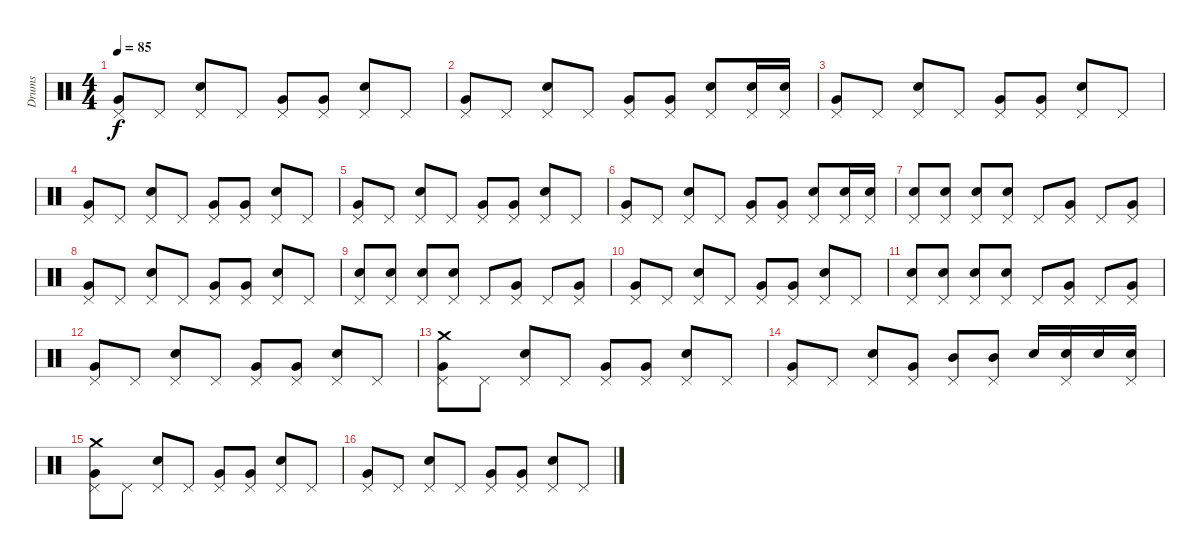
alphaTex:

\track ("Drums" "Drums") {instrument percussion}
\staff {score}
\articulation defaults
\ts (4 4)
\tempo 85
\clef neutral
\ks c
("Pedal Hi-Hat (hit)" "Very Low Tom (hit)").8{dy f} "Pedal Hi-Hat (hit)".8 ("Pedal Hi-Hat (hit)" "Snare (hit) 2").8 "Pedal Hi-Hat (hit)".8 ("Pedal Hi-Hat (hit)" "Very Low Tom (hit)").8 ("Pedal Hi-Hat (hit)" "Very Low Tom (hit)").8 ("Pedal Hi-Hat (hit)" "Snare (hit) 2").8 "Pedal Hi-Hat (hit)".8 |
("Pedal Hi-Hat (hit)" "Very Low Tom (hit)").8 "Pedal Hi-Hat (hit)".8 ("Pedal Hi-Hat (hit)" "Snare (hit) 2").8 "Pedal Hi-Hat (hit)".8 ("Pedal Hi-Hat (hit)" "Very Low Tom (hit)").8 ("Pedal Hi-Hat (hit)" "Very Low Tom (hit)").8 ("Pedal Hi-Hat (hit)" "Snare (hit) 2").8 ("Pedal Hi-Hat (hit)" "Electric Snare (hit)").16 ("Pedal Hi-Hat (hit)" "Electric Snare (hit)").16 |
("Pedal Hi-Hat (hit)" "Very Low Tom (hit)").8 "Pedal Hi-Hat (hit)".8 ("Pedal Hi-Hat (hit)" "Snare (hit) 2").8 "Pedal Hi-Hat (hit)".8 ("Pedal Hi-Hat (hit)" "Very Low Tom (hit)").8 ("Pedal Hi-Hat (hit)" "Very Low Tom (hit)").8 ("Pedal Hi-Hat (hit)" "Snare (hit) 2").8 "Pedal Hi-Hat (hit)".8 |
("Pedal Hi-Hat (hit)" "Very Low Tom (hit)").8 "Pedal Hi-Hat (hit)".8 ("Pedal Hi-Hat (hit)" "Snare (hit) 2").8 "Pedal Hi-Hat (hit)".8 ("Pedal Hi-Hat (hit)" "Very Low Tom (hit)").8 ("Pedal Hi-Hat (hit)" "Very Low Tom (hit)").8 ("Pedal Hi-Hat (hit)" "Snare (hit) 2").8 "Pedal Hi-Hat (hit)".8 |
("Pedal Hi-Hat (hit)" "Very Low Tom (hit)").8 "Pedal Hi-Hat (hit)".8 ("Pedal Hi-Hat (hit)" "Snare (hit) 2").8 "Pedal Hi-Hat (hit)".8 ("Pedal Hi-Hat (hit)" "Very Low Tom (hit)").8 ("Pedal Hi-Hat (hit)" "Very Low Tom (hit)").8 ("Pedal Hi-Hat (hit)" "Snare (hit) 2").8 "Pedal Hi-Hat (hit)".8 |
("Pedal Hi-Hat (hit)" "Very Low Tom (hit)").8 "Pedal Hi-Hat (hit)".8 ("Pedal Hi-Hat (hit)" "Snare (hit) 2").8 "Pedal Hi-Hat (hit)".8 ("Pedal Hi-Hat (hit)" "Very Low Tom (hit)").8 ("Pedal Hi-Hat (hit)" "Very Low Tom (hit)").8 ("Pedal Hi-Hat (hit)" "Snare (hit) 2").8 ("Pedal Hi-Hat (hit)" "Electric Snare (hit)").16 ("Pedal Hi-Hat (hit)" "Electric Snare (hit)").16 |
("Pedal Hi-Hat (hit)" "Snare (hit) 2").8 ("Pedal Hi-Hat (hit)" "Snare (hit) 2").8 ("Pedal Hi-Hat (hit)" "Snare (hit) 2").8 ("Pedal Hi-Hat (hit)" "Snare (hit) 2").8 "Pedal Hi-Hat (hit)".8 ("Pedal Hi-Hat (hit)" "Very Low Tom (hit)").8 "Pedal Hi-Hat (hit)".8 ("Pedal Hi-Hat (hit)" "Very Low Tom (hit)").8 |
("Pedal Hi-Hat (hit)" "Very Low Tom (hit)").8 "Pedal Hi-Hat (hit)".8 ("Pedal Hi-Hat (hit)" "Snare (hit) 2").8 "Pedal Hi-Hat (hit)".8 ("Pedal Hi-Hat (hit)" "Very Low Tom (hit)").8 ("Pedal Hi-Hat (hit)" "Very Low Tom (hit)").8 ("Pedal Hi-Hat (hit)" "Snare (hit) 2").8 "Pedal Hi-Hat (hit)".8 |
("Pedal Hi-Hat (hit)" "Snare (hit) 2").8 ("Pedal Hi-Hat (hit)" "Snare (hit) 2").8 ("Pedal Hi-Hat (hit)" "Snare (hit) 2").8 ("Pedal Hi-Hat (hit)" "Snare (hit) 2").8 "Pedal Hi-Hat (hit)".8 ("Pedal Hi-Hat (hit)" "Very Low Tom (hit)").8 "Pedal Hi-Hat (hit)".8 ("Pedal Hi-Hat (hit)" "Very Low Tom (hit)").8 |
("Pedal Hi-Hat (hit)" "Very Low Tom (hit)").8 "Pedal Hi-Hat (hit)".8 ("Pedal Hi-Hat (hit)" "Snare (hit) 2").8 "Pedal Hi-Hat (hit)".8 ("Pedal Hi-Hat (hit)" "Very Low Tom (hit)").8 ("Pedal Hi-Hat (hit)" "Very Low Tom (hit)").8 ("Pedal Hi-Hat (hit)" "Snare (hit) 2").8 "Pedal Hi-Hat (hit)".8 |
("Pedal Hi-Hat (hit)" "Snare (hit) 2").8 ("Pedal Hi-Hat (hit)" "Snare (hit) 2").8 ("Pedal Hi-Hat (hit)" "Snare (hit) 2").8 ("Pedal Hi-Hat (hit)" "Snare (hit) 2").8 "Pedal Hi-Hat (hit)".8 ("Pedal Hi-Hat (hit)" "Very Low Tom (hit)").8 "Pedal Hi-Hat (hit)".8 ("Pedal Hi-Hat (hit)" "Very Low Tom (hit)").8 |
("Pedal Hi-Hat (hit)" "Very Low Tom (hit)").8 "Pedal Hi-Hat (hit)".8 ("Pedal Hi-Hat (hit)" "Snare (hit) 2").8 "Pedal Hi-Hat (hit)".8 ("Pedal Hi-Hat (hit)" "Very Low Tom (hit)").8 ("Pedal Hi-Hat (hit)" "Very Low Tom (hit)").8 ("Pedal Hi-Hat (hit)" "Snare (hit) 2").8 "Pedal Hi-Hat (hit)".8 |
("Pedal Hi-Hat (hit)" "Very Low Tom (hit)" "Crash medium (hit)").8 "Pedal Hi-Hat (hit)".8 ("Pedal Hi-Hat (hit)" "Snare (hit) 2").8 "Pedal Hi-Hat (hit)".8 ("Pedal Hi-Hat (hit)" "Very Low Tom (hit)").8 ("Pedal Hi-Hat (hit)" "Very Low Tom (hit)").8 ("Pedal Hi-Hat (hit)" "Snare (hit) 2").8 "Pedal Hi-Hat (hit)".8 |
("Pedal Hi-Hat (hit)" "Very Low Tom (hit)").8 "Pedal Hi-Hat (hit)".8 ("Pedal Hi-Hat (hit)" "Snare (hit) 2").8 ("Pedal Hi-Hat (hit)" "Very Low Tom (hit)").8 ("Pedal Hi-Hat (hit)" "Mid Tom (hit)").8 ("Pedal Hi-Hat (hit)" "Mid Tom (hit)").8 "Snare (hit) 2".16 ("Pedal Hi-Hat (hit)" "Snare (hit) 2").16 "Snare (hit) 2".16 ("Pedal Hi-Hat (hit)" "Snare (hit) 2").16 |
("Pedal Hi-Hat (hit)" "Very Low Tom (hit)" "Crash medium (hit)").8 "Pedal Hi-Hat (hit)".8 ("Pedal Hi-Hat (hit)" "Snare (hit) 2").8 "Pedal Hi-Hat (hit)".8 ("Pedal Hi-Hat (hit)" "Very Low Tom (hit)").8 ("Pedal Hi-Hat (hit)" "Very Low Tom (hit)").8 ("Pedal Hi-Hat (hit)" "Snare (hit) 2").8 "Pedal Hi-Hat (hit)".8 |
("Pedal Hi-Hat (hit)" "Very Low Tom (hit)").8 "Pedal Hi-Hat (hit)".8 ("Pedal Hi-Hat (hit)" "Snare (hit) 2").8 "Pedal Hi-Hat (hit)".8 ("Pedal Hi-Hat (hit)" "Very Low Tom (hit)").8 ("Pedal Hi-Hat (hit)" "Very Low Tom (hit)").8 ("Pedal Hi-Hat (hit)" "Snare (hit) 2").8 "Pedal Hi-Hat (hit)".8
